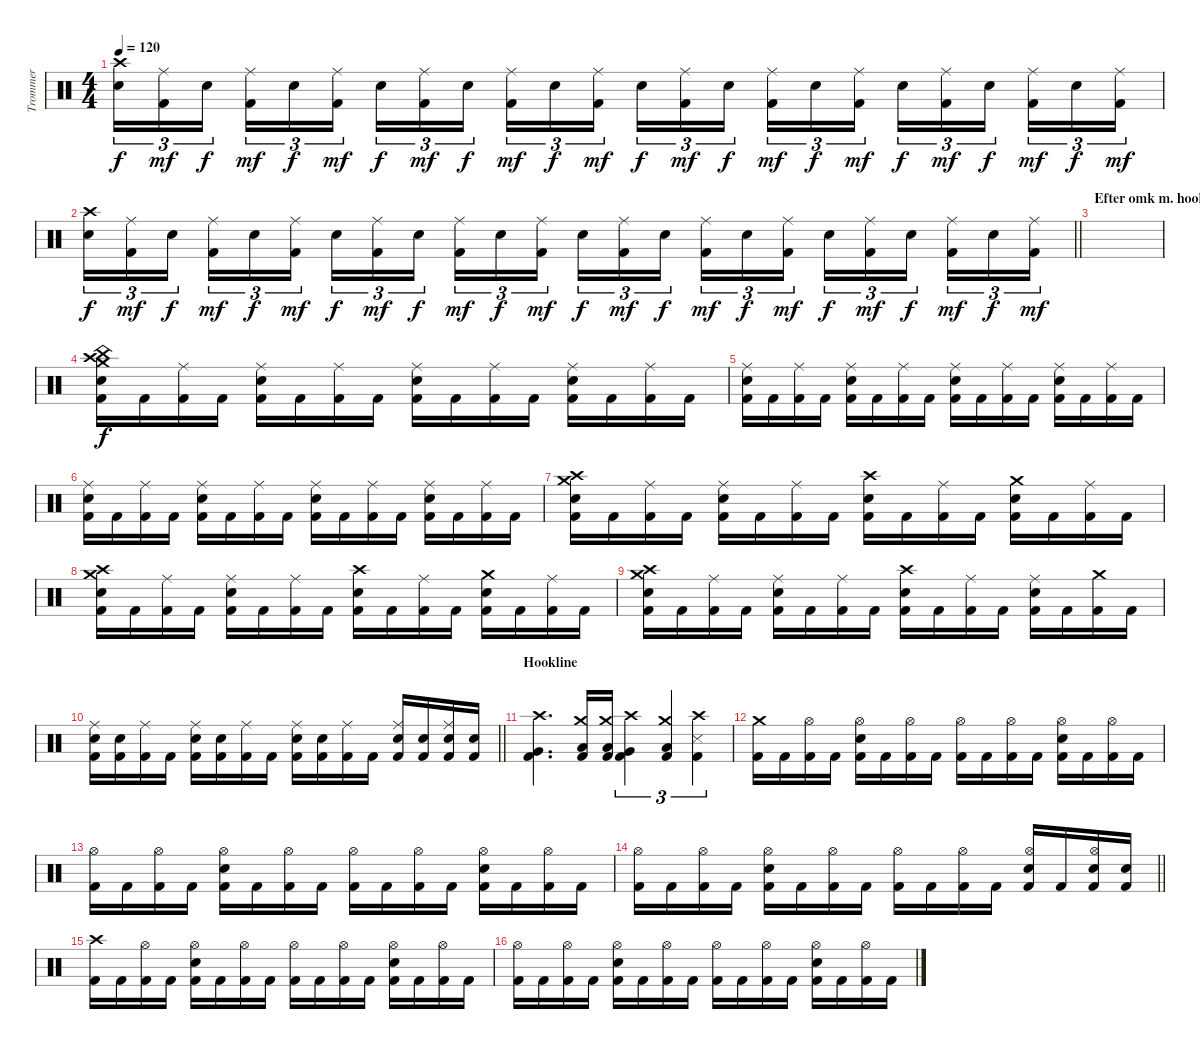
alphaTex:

\track ("Trommer" "Trommer") {instrument percussion}
\staff {score}
\articulation defaults
\ts (4 4)
\tempo 120
\clef neutral
\ks c
("Crash high (hit)" "Snare (hit) 2").16{tu (3 2) dy f} ("Ride (middle)" "Kick (hit) 2").16{tu (3 2) dy mf} "Snare (hit) 2".16{tu (3 2) dy f beam splitsecondary} ("Ride (middle)" "Kick (hit) 2").16{tu (3 2) dy mf} "Snare (hit) 2".16{tu (3 2) dy f} ("Ride (middle)" "Kick (hit) 2").16{tu (3 2) dy mf} "Snare (hit) 2".16{tu (3 2) dy f} ("Ride (middle)" "Kick (hit) 2").16{tu (3 2) dy mf} "Snare (hit) 2".16{tu (3 2) dy f beam splitsecondary} ("Ride (middle)" "Kick (hit) 2").16{tu (3 2) dy mf} "Snare (hit) 2".16{tu (3 2) dy f} ("Ride (middle)" "Kick (hit) 2").16{tu (3 2) dy mf} "Snare (hit) 2".16{tu (3 2) dy f} ("Ride (middle)" "Kick (hit) 2").16{tu (3 2) dy mf} "Snare (hit) 2".16{tu (3 2) dy f beam splitsecondary} ("Ride (middle)" "Kick (hit) 2").16{tu (3 2) dy mf} "Snare (hit) 2".16{tu (3 2) dy f} ("Ride (middle)" "Kick (hit) 2").16{tu (3 2) dy mf} "Snare (hit) 2".16{tu (3 2) dy f} ("Ride (middle)" "Kick (hit) 2").16{tu (3 2) dy mf} "Snare (hit) 2".16{tu (3 2) dy f beam splitsecondary} ("Ride (middle)" "Kick (hit) 2").16{tu (3 2) dy mf} "Snare (hit) 2".16{tu (3 2) dy f} ("Ride (middle)" "Kick (hit) 2").16{tu (3 2) dy mf} |
\barLineRight lightlight
("Crash high (hit)" "Snare (hit) 2").16{tu (3 2) dy f} ("Ride (middle)" "Kick (hit) 2").16{tu (3 2) dy mf} "Snare (hit) 2".16{tu (3 2) dy f beam splitsecondary} ("Ride (middle)" "Kick (hit) 2").16{tu (3 2) dy mf} "Snare (hit) 2".16{tu (3 2) dy f} ("Ride (middle)" "Kick (hit) 2").16{tu (3 2) dy mf} "Snare (hit) 2".16{tu (3 2) dy f} ("Ride (middle)" "Kick (hit) 2").16{tu (3 2) dy mf} "Snare (hit) 2".16{tu (3 2) dy f beam splitsecondary} ("Ride (middle)" "Kick (hit) 2").16{tu (3 2) dy mf} "Snare (hit) 2".16{tu (3 2) dy f} ("Ride (middle)" "Kick (hit) 2").16{tu (3 2) dy mf} "Snare (hit) 2".16{tu (3 2) dy f} ("Ride (middle)" "Kick (hit) 2").16{tu (3 2) dy mf} "Snare (hit) 2".16{tu (3 2) dy f beam splitsecondary} ("Ride (middle)" "Kick (hit) 2").16{tu (3 2) dy mf} "Snare (hit) 2".16{tu (3 2) dy f} ("Ride (middle)" "Kick (hit) 2").16{tu (3 2) dy mf} "Snare (hit) 2".16{tu (3 2) dy f} ("Ride (middle)" "Kick (hit) 2").16{tu (3 2) dy mf} "Snare (hit) 2".16{tu (3 2) dy f beam splitsecondary} ("Ride (middle)" "Kick (hit) 2").16{tu (3 2) dy mf} "Snare (hit) 2".16{tu (3 2) dy f} ("Ride (middle)" "Kick (hit) 2").16{tu (3 2) dy mf} |
\section ("" "Efter omk m. hookline")
|
("Crash high (hit)" "Crash medium (hit)" "China (hit)" "Snare (hit) 2" "Kick (hit) 2").16{dy f} "Kick (hit) 2".16 ("Ride (middle)" "Kick (hit) 2").16 "Kick (hit) 2".16 ("Ride (middle)" "Snare (hit) 2" "Kick (hit) 2").16 "Kick (hit) 2".16 ("Ride (middle)" "Kick (hit) 2").16 "Kick (hit) 2".16 ("Ride (middle)" "Snare (hit) 2" "Kick (hit) 2").16 "Kick (hit) 2".16 ("Ride (middle)" "Kick (hit) 2").16 "Kick (hit) 2".16 ("Ride (middle)" "Snare (hit) 2" "Kick (hit) 2").16 "Kick (hit) 2".16 ("Ride (middle)" "Kick (hit) 2").16 "Kick (hit) 2".16 |
("Ride (middle)" "Snare (hit) 2" "Kick (hit) 2").16 "Kick (hit) 2".16 ("Ride (middle)" "Kick (hit) 2").16 "Kick (hit) 2".16 ("Ride (middle)" "Snare (hit) 2" "Kick (hit) 2").16 "Kick (hit) 2".16 ("Ride (middle)" "Kick (hit) 2").16 "Kick (hit) 2".16 ("Ride (middle)" "Snare (hit) 2" "Kick (hit) 2").16 "Kick (hit) 2".16 ("Ride (middle)" "Kick (hit) 2").16 "Kick (hit) 2".16 ("Ride (middle)" "Snare (hit) 2" "Kick (hit) 2").16 "Kick (hit) 2".16 ("Ride (middle)" "Kick (hit) 2").16 "Kick (hit) 2".16 |
("Ride (middle)" "Snare (hit) 2" "Kick (hit) 2").16 "Kick (hit) 2".16 ("Ride (middle)" "Kick (hit) 2").16 "Kick (hit) 2".16 ("Ride (middle)" "Snare (hit) 2" "Kick (hit) 2").16 "Kick (hit) 2".16 ("Ride (middle)" "Kick (hit) 2").16 "Kick (hit) 2".16 ("Ride (middle)" "Snare (hit) 2" "Kick (hit) 2").16 "Kick (hit) 2".16 ("Ride (middle)" "Kick (hit) 2").16 "Kick (hit) 2".16 ("Ride (middle)" "Snare (hit) 2" "Kick (hit) 2").16 "Kick (hit) 2".16 ("Ride (middle)" "Kick (hit) 2").16 "Kick (hit) 2".16 |
("Crash high (hit)" "Crash medium (hit)" "Snare (hit) 2" "Kick (hit) 2").16 "Kick (hit) 2".16 ("Ride (middle)" "Kick (hit) 2").16 "Kick (hit) 2".16 ("Ride (middle)" "Snare (hit) 2" "Kick (hit) 2").16 "Kick (hit) 2".16 ("Ride (middle)" "Kick (hit) 2").16 "Kick (hit) 2".16 ("Crash high (hit)" "Snare (hit) 2" "Kick (hit) 2").16 "Kick (hit) 2".16 ("Ride (middle)" "Kick (hit) 2").16 "Kick (hit) 2".16 ("Crash medium (hit)" "Snare (hit) 2" "Kick (hit) 2").16 "Kick (hit) 2".16 ("Ride (middle)" "Kick (hit) 2").16 "Kick (hit) 2".16 |
("Crash high (hit)" "Crash medium (hit)" "Snare (hit) 2" "Kick (hit) 2").16 "Kick (hit) 2".16 ("Ride (middle)" "Kick (hit) 2").16 "Kick (hit) 2".16 ("Ride (middle)" "Snare (hit) 2" "Kick (hit) 2").16 "Kick (hit) 2".16 ("Ride (middle)" "Kick (hit) 2").16 "Kick (hit) 2".16 ("Crash high (hit)" "Snare (hit) 2" "Kick (hit) 2").16 "Kick (hit) 2".16 ("Ride (middle)" "Kick (hit) 2").16 "Kick (hit) 2".16 ("Crash medium (hit)" "Snare (hit) 2" "Kick (hit) 2").16 "Kick (hit) 2".16 ("Ride (middle)" "Kick (hit) 2").16 "Kick (hit) 2".16 |
("Crash high (hit)" "Crash medium (hit)" "Snare (hit) 2" "Kick (hit) 2").16 "Kick (hit) 2".16 ("Ride (middle)" "Kick (hit) 2").16 "Kick (hit) 2".16 ("Ride (middle)" "Snare (hit) 2" "Kick (hit) 2").16 "Kick (hit) 2".16 ("Ride (middle)" "Kick (hit) 2").16 "Kick (hit) 2".16 ("Crash high (hit)" "Snare (hit) 2" "Kick (hit) 2").16 "Kick (hit) 2".16 ("Ride (middle)" "Kick (hit) 2").16 "Kick (hit) 2".16 ("Ride (middle)" "Snare (hit) 2" "Kick (hit) 2").16 "Kick (hit) 2".16 ("Crash medium (hit)" "Kick (hit) 2").16 "Kick (hit) 2".16 |
\barLineRight lightlight
("Ride (middle)" "Snare (hit) 2" "Kick (hit) 2").16 ("Snare (hit) 2" "Kick (hit) 2").16 ("Ride (middle)" "Kick (hit) 2").16 "Kick (hit) 2".16 ("Ride (middle)" "Snare (hit) 2" "Kick (hit) 2").16 ("Snare (hit) 2" "Kick (hit) 2").16 ("Ride (middle)" "Kick (hit) 2").16 "Kick (hit) 2".16 ("Ride (middle)" "Snare (hit) 2" "Kick (hit) 2").16 ("Snare (hit) 2" "Kick (hit) 2").16 ("Ride (middle)" "Kick (hit) 2").16 "Kick (hit) 2".16 ("Ride (middle)" "Snare (hit) 2" "Kick (hit) 2").16 ("Snare (hit) 2" "Kick (hit) 2").16 ("Ride (middle)" "Snare (hit) 2" "Kick (hit) 2").16 ("Snare (hit) 2" "Kick (hit) 2").16 |
\section ("" "Hookline")
("Crash high (hit)" "Very Low Tom (hit)" "Kick (hit) 2").4{d} ("Crash medium (hit)" "Low Floor Tom (hit)" "Kick (hit) 2").16 ("Crash medium (hit)" "Low Floor Tom (hit)" "Kick (hit) 2").16 ("Crash high (hit)" "Very Low Tom (hit)" "Kick (hit) 2").4{tu (3 2)} ("Crash medium (hit)" "Low Floor Tom (hit)" "Kick (hit) 2").4{tu (3 2)} ("Crash high (hit)" "Snare (side stick) 3" "Kick (hit) 2").4{tu (3 2)} |
("Crash medium (hit)" "Kick (hit) 2").16 "Kick (hit) 2".16 ("Hi-Hat (open)" "Kick (hit) 2").16 "Kick (hit) 2".16 ("Hi-Hat (open)" "Electric Snare (hit)" "Kick (hit) 2").16 "Kick (hit) 2".16 ("Hi-Hat (open)" "Kick (hit) 2").16 "Kick (hit) 2".16 ("Hi-Hat (open)" "Kick (hit) 2").16 "Kick (hit) 2".16 ("Hi-Hat (open)" "Kick (hit) 2").16 "Kick (hit) 2".16 ("Hi-Hat (open)" "Electric Snare (hit)" "Kick (hit) 2").16 "Kick (hit) 2".16 ("Hi-Hat (open)" "Kick (hit) 2").16 "Kick (hit) 2".16 |
("Hi-Hat (open)" "Kick (hit) 2").16 "Kick (hit) 2".16 ("Hi-Hat (open)" "Kick (hit) 2").16 "Kick (hit) 2".16 ("Hi-Hat (open)" "Electric Snare (hit)" "Kick (hit) 2").16 "Kick (hit) 2".16 ("Hi-Hat (open)" "Kick (hit) 2").16 "Kick (hit) 2".16 ("Hi-Hat (open)" "Kick (hit) 2").16 "Kick (hit) 2".16 ("Hi-Hat (open)" "Kick (hit) 2").16 "Kick (hit) 2".16 ("Hi-Hat (open)" "Electric Snare (hit)" "Kick (hit) 2").16 "Kick (hit) 2".16 ("Hi-Hat (open)" "Kick (hit) 2").16 "Kick (hit) 2".16 |
\barLineRight lightlight
("Hi-Hat (open)" "Kick (hit) 2").16 "Kick (hit) 2".16 ("Hi-Hat (open)" "Kick (hit) 2").16 "Kick (hit) 2".16 ("Hi-Hat (open)" "Electric Snare (hit)" "Kick (hit) 2").16 "Kick (hit) 2".16 ("Hi-Hat (open)" "Kick (hit) 2").16 "Kick (hit) 2".16 ("Hi-Hat (open)" "Kick (hit) 2").16 "Kick (hit) 2".16 ("Hi-Hat (open)" "Kick (hit) 2").16 "Kick (hit) 2".16 ("Hi-Hat (open)" "Electric Snare (hit)" "Kick (hit) 2").16 "Kick (hit) 2".16 ("Hi-Hat (open)" "Electric Snare (hit)" "Kick (hit) 2").16 ("Electric Snare (hit)" "Kick (hit) 2").16 |
("Crash high (hit)" "Kick (hit) 2").16 "Kick (hit) 2".16 ("Hi-Hat (open)" "Kick (hit) 2").16 "Kick (hit) 2".16 ("Hi-Hat (open)" "Electric Snare (hit)" "Kick (hit) 2").16 "Kick (hit) 2".16 ("Hi-Hat (open)" "Kick (hit) 2").16 "Kick (hit) 2".16 ("Hi-Hat (open)" "Kick (hit) 2").16 "Kick (hit) 2".16 ("Hi-Hat (open)" "Kick (hit) 2").16 "Kick (hit) 2".16 ("Hi-Hat (open)" "Electric Snare (hit)" "Kick (hit) 2").16 "Kick (hit) 2".16 ("Hi-Hat (open)" "Kick (hit) 2").16 "Kick (hit) 2".16 |
("Hi-Hat (open)" "Kick (hit) 2").16 "Kick (hit) 2".16 ("Hi-Hat (open)" "Kick (hit) 2").16 "Kick (hit) 2".16 ("Hi-Hat (open)" "Electric Snare (hit)" "Kick (hit) 2").16 "Kick (hit) 2".16 ("Hi-Hat (open)" "Kick (hit) 2").16 "Kick (hit) 2".16 ("Hi-Hat (open)" "Kick (hit) 2").16 "Kick (hit) 2".16 ("Hi-Hat (open)" "Kick (hit) 2").16 "Kick (hit) 2".16 ("Hi-Hat (open)" "Electric Snare (hit)" "Kick (hit) 2").16 "Kick (hit) 2".16 ("Hi-Hat (open)" "Kick (hit) 2").16 "Kick (hit) 2".16
